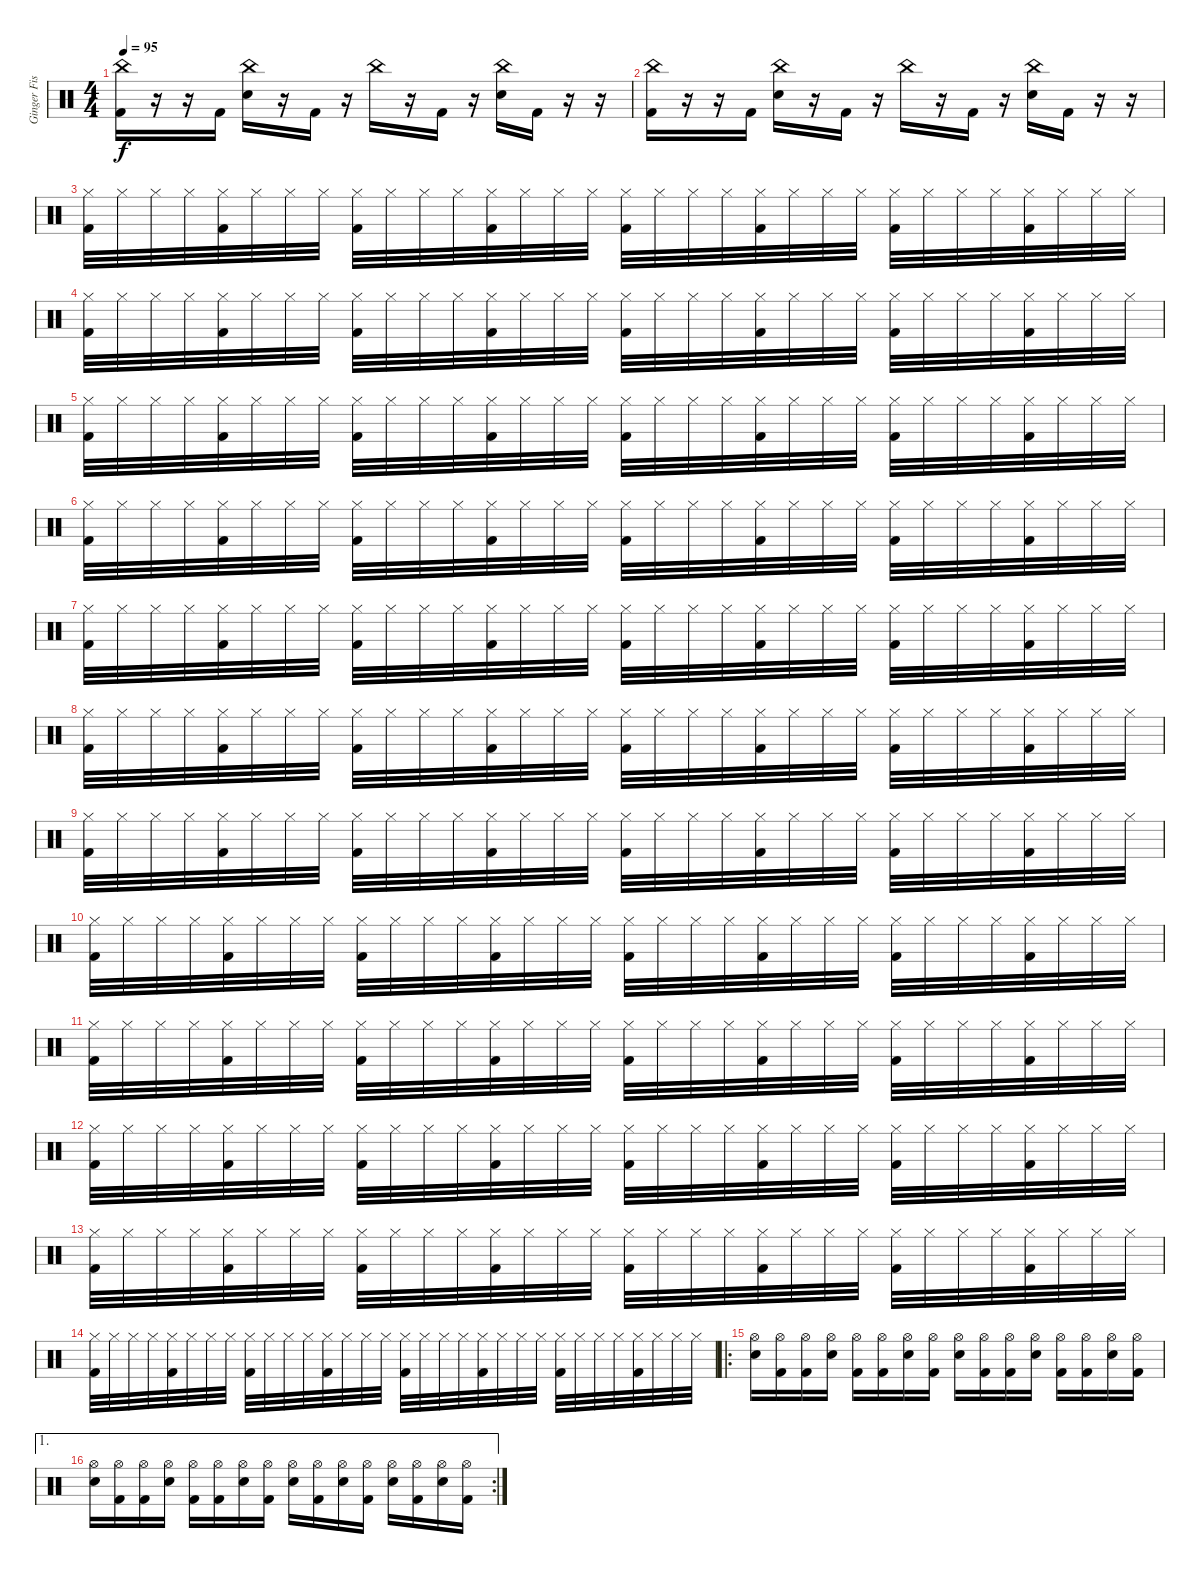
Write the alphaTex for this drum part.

\track ("Ginger Fish" "Ginger Fis") {instrument percussion}
\staff {score}
\articulation defaults
\ts (4 4)
\tempo 95
\clef neutral
\ks c
("China (hit)" "Kick (hit) 2").16{dy f} r.16 r.16 "Kick (hit) 2".16 ("China (hit)" "Electric Snare (hit)").16 r.16 "Kick (hit) 2".16 r.16 "China (hit)".16 r.16 "Kick (hit) 2".16 r.16 ("China (hit)" "Electric Snare (hit)").16 "Kick (hit) 2".16 r.16 r.16 |
("China (hit)" "Kick (hit) 2").16 r.16 r.16 "Kick (hit) 2".16 ("China (hit)" "Electric Snare (hit)").16 r.16 "Kick (hit) 2".16 r.16 "China (hit)".16 r.16 "Kick (hit) 2".16 r.16 ("China (hit)" "Electric Snare (hit)").16 "Kick (hit) 2".16 r.16 r.16 |
("Hi-Hat (closed)" "Kick (hit) 2").32 "Hi-Hat (closed)".32 "Hi-Hat (closed)".32 "Hi-Hat (closed)".32 ("Hi-Hat (closed)" "Kick (hit) 2").32 "Hi-Hat (closed)".32 "Hi-Hat (closed)".32 "Hi-Hat (closed)".32 ("Hi-Hat (closed)" "Kick (hit) 2").32 "Hi-Hat (closed)".32 "Hi-Hat (closed)".32 "Hi-Hat (closed)".32 ("Hi-Hat (closed)" "Kick (hit) 2").32 "Hi-Hat (closed)".32 "Hi-Hat (closed)".32 "Hi-Hat (closed)".32 ("Hi-Hat (closed)" "Kick (hit) 2").32 "Hi-Hat (closed)".32 "Hi-Hat (closed)".32 "Hi-Hat (closed)".32 ("Hi-Hat (closed)" "Kick (hit) 2").32 "Hi-Hat (closed)".32 "Hi-Hat (closed)".32 "Hi-Hat (closed)".32 ("Hi-Hat (closed)" "Kick (hit) 2").32 "Hi-Hat (closed)".32 "Hi-Hat (closed)".32 "Hi-Hat (closed)".32 ("Hi-Hat (closed)" "Kick (hit) 2").32 "Hi-Hat (closed)".32 "Hi-Hat (closed)".32 "Hi-Hat (closed)".32 |
("Hi-Hat (closed)" "Kick (hit) 2").32 "Hi-Hat (closed)".32 "Hi-Hat (closed)".32 "Hi-Hat (closed)".32 ("Hi-Hat (closed)" "Kick (hit) 2").32 "Hi-Hat (closed)".32 "Hi-Hat (closed)".32 "Hi-Hat (closed)".32 ("Hi-Hat (closed)" "Kick (hit) 2").32 "Hi-Hat (closed)".32 "Hi-Hat (closed)".32 "Hi-Hat (closed)".32 ("Hi-Hat (closed)" "Kick (hit) 2").32 "Hi-Hat (closed)".32 "Hi-Hat (closed)".32 "Hi-Hat (closed)".32 ("Hi-Hat (closed)" "Kick (hit) 2").32 "Hi-Hat (closed)".32 "Hi-Hat (closed)".32 "Hi-Hat (closed)".32 ("Hi-Hat (closed)" "Kick (hit) 2").32 "Hi-Hat (closed)".32 "Hi-Hat (closed)".32 "Hi-Hat (closed)".32 ("Hi-Hat (closed)" "Kick (hit) 2").32 "Hi-Hat (closed)".32 "Hi-Hat (closed)".32 "Hi-Hat (closed)".32 ("Hi-Hat (closed)" "Kick (hit) 2").32 "Hi-Hat (closed)".32 "Hi-Hat (closed)".32 "Hi-Hat (closed)".32 |
("Hi-Hat (closed)" "Kick (hit) 2").32 "Hi-Hat (closed)".32 "Hi-Hat (closed)".32 "Hi-Hat (closed)".32 ("Hi-Hat (closed)" "Kick (hit) 2").32 "Hi-Hat (closed)".32 "Hi-Hat (closed)".32 "Hi-Hat (closed)".32 ("Hi-Hat (closed)" "Kick (hit) 2").32 "Hi-Hat (closed)".32 "Hi-Hat (closed)".32 "Hi-Hat (closed)".32 ("Hi-Hat (closed)" "Kick (hit) 2").32 "Hi-Hat (closed)".32 "Hi-Hat (closed)".32 "Hi-Hat (closed)".32 ("Hi-Hat (closed)" "Kick (hit) 2").32 "Hi-Hat (closed)".32 "Hi-Hat (closed)".32 "Hi-Hat (closed)".32 ("Hi-Hat (closed)" "Kick (hit) 2").32 "Hi-Hat (closed)".32 "Hi-Hat (closed)".32 "Hi-Hat (closed)".32 ("Hi-Hat (closed)" "Kick (hit) 2").32 "Hi-Hat (closed)".32 "Hi-Hat (closed)".32 "Hi-Hat (closed)".32 ("Hi-Hat (closed)" "Kick (hit) 2").32 "Hi-Hat (closed)".32 "Hi-Hat (closed)".32 "Hi-Hat (closed)".32 |
("Hi-Hat (closed)" "Kick (hit) 2").32 "Hi-Hat (closed)".32 "Hi-Hat (closed)".32 "Hi-Hat (closed)".32 ("Hi-Hat (closed)" "Kick (hit) 2").32 "Hi-Hat (closed)".32 "Hi-Hat (closed)".32 "Hi-Hat (closed)".32 ("Hi-Hat (closed)" "Kick (hit) 2").32 "Hi-Hat (closed)".32 "Hi-Hat (closed)".32 "Hi-Hat (closed)".32 ("Hi-Hat (closed)" "Kick (hit) 2").32 "Hi-Hat (closed)".32 "Hi-Hat (closed)".32 "Hi-Hat (closed)".32 ("Hi-Hat (closed)" "Kick (hit) 2").32 "Hi-Hat (closed)".32 "Hi-Hat (closed)".32 "Hi-Hat (closed)".32 ("Hi-Hat (closed)" "Kick (hit) 2").32 "Hi-Hat (closed)".32 "Hi-Hat (closed)".32 "Hi-Hat (closed)".32 ("Hi-Hat (closed)" "Kick (hit) 2").32 "Hi-Hat (closed)".32 "Hi-Hat (closed)".32 "Hi-Hat (closed)".32 ("Hi-Hat (closed)" "Kick (hit) 2").32 "Hi-Hat (closed)".32 "Hi-Hat (closed)".32 "Hi-Hat (closed)".32 |
("Hi-Hat (closed)" "Kick (hit) 2").32 "Hi-Hat (closed)".32 "Hi-Hat (closed)".32 "Hi-Hat (closed)".32 ("Hi-Hat (closed)" "Kick (hit) 2").32 "Hi-Hat (closed)".32 "Hi-Hat (closed)".32 "Hi-Hat (closed)".32 ("Hi-Hat (closed)" "Kick (hit) 2").32 "Hi-Hat (closed)".32 "Hi-Hat (closed)".32 "Hi-Hat (closed)".32 ("Hi-Hat (closed)" "Kick (hit) 2").32 "Hi-Hat (closed)".32 "Hi-Hat (closed)".32 "Hi-Hat (closed)".32 ("Hi-Hat (closed)" "Kick (hit) 2").32 "Hi-Hat (closed)".32 "Hi-Hat (closed)".32 "Hi-Hat (closed)".32 ("Hi-Hat (closed)" "Kick (hit) 2").32 "Hi-Hat (closed)".32 "Hi-Hat (closed)".32 "Hi-Hat (closed)".32 ("Hi-Hat (closed)" "Kick (hit) 2").32 "Hi-Hat (closed)".32 "Hi-Hat (closed)".32 "Hi-Hat (closed)".32 ("Hi-Hat (closed)" "Kick (hit) 2").32 "Hi-Hat (closed)".32 "Hi-Hat (closed)".32 "Hi-Hat (closed)".32 |
("Hi-Hat (closed)" "Kick (hit) 2").32 "Hi-Hat (closed)".32 "Hi-Hat (closed)".32 "Hi-Hat (closed)".32 ("Hi-Hat (closed)" "Kick (hit) 2").32 "Hi-Hat (closed)".32 "Hi-Hat (closed)".32 "Hi-Hat (closed)".32 ("Hi-Hat (closed)" "Kick (hit) 2").32 "Hi-Hat (closed)".32 "Hi-Hat (closed)".32 "Hi-Hat (closed)".32 ("Hi-Hat (closed)" "Kick (hit) 2").32 "Hi-Hat (closed)".32 "Hi-Hat (closed)".32 "Hi-Hat (closed)".32 ("Hi-Hat (closed)" "Kick (hit) 2").32 "Hi-Hat (closed)".32 "Hi-Hat (closed)".32 "Hi-Hat (closed)".32 ("Hi-Hat (closed)" "Kick (hit) 2").32 "Hi-Hat (closed)".32 "Hi-Hat (closed)".32 "Hi-Hat (closed)".32 ("Hi-Hat (closed)" "Kick (hit) 2").32 "Hi-Hat (closed)".32 "Hi-Hat (closed)".32 "Hi-Hat (closed)".32 ("Hi-Hat (closed)" "Kick (hit) 2").32 "Hi-Hat (closed)".32 "Hi-Hat (closed)".32 "Hi-Hat (closed)".32 |
("Hi-Hat (closed)" "Kick (hit) 2").32 "Hi-Hat (closed)".32 "Hi-Hat (closed)".32 "Hi-Hat (closed)".32 ("Hi-Hat (closed)" "Kick (hit) 2").32 "Hi-Hat (closed)".32 "Hi-Hat (closed)".32 "Hi-Hat (closed)".32 ("Hi-Hat (closed)" "Kick (hit) 2").32 "Hi-Hat (closed)".32 "Hi-Hat (closed)".32 "Hi-Hat (closed)".32 ("Hi-Hat (closed)" "Kick (hit) 2").32 "Hi-Hat (closed)".32 "Hi-Hat (closed)".32 "Hi-Hat (closed)".32 ("Hi-Hat (closed)" "Kick (hit) 2").32 "Hi-Hat (closed)".32 "Hi-Hat (closed)".32 "Hi-Hat (closed)".32 ("Hi-Hat (closed)" "Kick (hit) 2").32 "Hi-Hat (closed)".32 "Hi-Hat (closed)".32 "Hi-Hat (closed)".32 ("Hi-Hat (closed)" "Kick (hit) 2").32 "Hi-Hat (closed)".32 "Hi-Hat (closed)".32 "Hi-Hat (closed)".32 ("Hi-Hat (closed)" "Kick (hit) 2").32 "Hi-Hat (closed)".32 "Hi-Hat (closed)".32 "Hi-Hat (closed)".32 |
("Hi-Hat (closed)" "Kick (hit) 2").32 "Hi-Hat (closed)".32 "Hi-Hat (closed)".32 "Hi-Hat (closed)".32 ("Hi-Hat (closed)" "Kick (hit) 2").32 "Hi-Hat (closed)".32 "Hi-Hat (closed)".32 "Hi-Hat (closed)".32 ("Hi-Hat (closed)" "Kick (hit) 2").32 "Hi-Hat (closed)".32 "Hi-Hat (closed)".32 "Hi-Hat (closed)".32 ("Hi-Hat (closed)" "Kick (hit) 2").32 "Hi-Hat (closed)".32 "Hi-Hat (closed)".32 "Hi-Hat (closed)".32 ("Hi-Hat (closed)" "Kick (hit) 2").32 "Hi-Hat (closed)".32 "Hi-Hat (closed)".32 "Hi-Hat (closed)".32 ("Hi-Hat (closed)" "Kick (hit) 2").32 "Hi-Hat (closed)".32 "Hi-Hat (closed)".32 "Hi-Hat (closed)".32 ("Hi-Hat (closed)" "Kick (hit) 2").32 "Hi-Hat (closed)".32 "Hi-Hat (closed)".32 "Hi-Hat (closed)".32 ("Hi-Hat (closed)" "Kick (hit) 2").32 "Hi-Hat (closed)".32 "Hi-Hat (closed)".32 "Hi-Hat (closed)".32 |
("Hi-Hat (closed)" "Kick (hit) 2").32 "Hi-Hat (closed)".32 "Hi-Hat (closed)".32 "Hi-Hat (closed)".32 ("Hi-Hat (closed)" "Kick (hit) 2").32 "Hi-Hat (closed)".32 "Hi-Hat (closed)".32 "Hi-Hat (closed)".32 ("Hi-Hat (closed)" "Kick (hit) 2").32 "Hi-Hat (closed)".32 "Hi-Hat (closed)".32 "Hi-Hat (closed)".32 ("Hi-Hat (closed)" "Kick (hit) 2").32 "Hi-Hat (closed)".32 "Hi-Hat (closed)".32 "Hi-Hat (closed)".32 ("Hi-Hat (closed)" "Kick (hit) 2").32 "Hi-Hat (closed)".32 "Hi-Hat (closed)".32 "Hi-Hat (closed)".32 ("Hi-Hat (closed)" "Kick (hit) 2").32 "Hi-Hat (closed)".32 "Hi-Hat (closed)".32 "Hi-Hat (closed)".32 ("Hi-Hat (closed)" "Kick (hit) 2").32 "Hi-Hat (closed)".32 "Hi-Hat (closed)".32 "Hi-Hat (closed)".32 ("Hi-Hat (closed)" "Kick (hit) 2").32 "Hi-Hat (closed)".32 "Hi-Hat (closed)".32 "Hi-Hat (closed)".32 |
("Hi-Hat (closed)" "Kick (hit) 2").32 "Hi-Hat (closed)".32 "Hi-Hat (closed)".32 "Hi-Hat (closed)".32 ("Hi-Hat (closed)" "Kick (hit) 2").32 "Hi-Hat (closed)".32 "Hi-Hat (closed)".32 "Hi-Hat (closed)".32 ("Hi-Hat (closed)" "Kick (hit) 2").32 "Hi-Hat (closed)".32 "Hi-Hat (closed)".32 "Hi-Hat (closed)".32 ("Hi-Hat (closed)" "Kick (hit) 2").32 "Hi-Hat (closed)".32 "Hi-Hat (closed)".32 "Hi-Hat (closed)".32 ("Hi-Hat (closed)" "Kick (hit) 2").32 "Hi-Hat (closed)".32 "Hi-Hat (closed)".32 "Hi-Hat (closed)".32 ("Hi-Hat (closed)" "Kick (hit) 2").32 "Hi-Hat (closed)".32 "Hi-Hat (closed)".32 "Hi-Hat (closed)".32 ("Hi-Hat (closed)" "Kick (hit) 2").32 "Hi-Hat (closed)".32 "Hi-Hat (closed)".32 "Hi-Hat (closed)".32 ("Hi-Hat (closed)" "Kick (hit) 2").32 "Hi-Hat (closed)".32 "Hi-Hat (closed)".32 "Hi-Hat (closed)".32 |
("Hi-Hat (closed)" "Kick (hit) 2").32 "Hi-Hat (closed)".32 "Hi-Hat (closed)".32 "Hi-Hat (closed)".32 ("Hi-Hat (closed)" "Kick (hit) 2").32 "Hi-Hat (closed)".32 "Hi-Hat (closed)".32 "Hi-Hat (closed)".32 ("Hi-Hat (closed)" "Kick (hit) 2").32 "Hi-Hat (closed)".32 "Hi-Hat (closed)".32 "Hi-Hat (closed)".32 ("Hi-Hat (closed)" "Kick (hit) 2").32 "Hi-Hat (closed)".32 "Hi-Hat (closed)".32 "Hi-Hat (closed)".32 ("Hi-Hat (closed)" "Kick (hit) 2").32 "Hi-Hat (closed)".32 "Hi-Hat (closed)".32 "Hi-Hat (closed)".32 ("Hi-Hat (closed)" "Kick (hit) 2").32 "Hi-Hat (closed)".32 "Hi-Hat (closed)".32 "Hi-Hat (closed)".32 ("Hi-Hat (closed)" "Kick (hit) 2").32 "Hi-Hat (closed)".32 "Hi-Hat (closed)".32 "Hi-Hat (closed)".32 ("Hi-Hat (closed)" "Kick (hit) 2").32 "Hi-Hat (closed)".32 "Hi-Hat (closed)".32 "Hi-Hat (closed)".32 |
("Hi-Hat (closed)" "Kick (hit) 2").32 "Hi-Hat (closed)".32 "Hi-Hat (closed)".32 "Hi-Hat (closed)".32 ("Hi-Hat (closed)" "Kick (hit) 2").32 "Hi-Hat (closed)".32 "Hi-Hat (closed)".32 "Hi-Hat (closed)".32 ("Hi-Hat (closed)" "Kick (hit) 2").32 "Hi-Hat (closed)".32 "Hi-Hat (closed)".32 "Hi-Hat (closed)".32 ("Hi-Hat (closed)" "Kick (hit) 2").32 "Hi-Hat (closed)".32 "Hi-Hat (closed)".32 "Hi-Hat (closed)".32 ("Hi-Hat (closed)" "Kick (hit) 2").32 "Hi-Hat (closed)".32 "Hi-Hat (closed)".32 "Hi-Hat (closed)".32 ("Hi-Hat (closed)" "Kick (hit) 2").32 "Hi-Hat (closed)".32 "Hi-Hat (closed)".32 "Hi-Hat (closed)".32 ("Hi-Hat (closed)" "Kick (hit) 2").32 "Hi-Hat (closed)".32 "Hi-Hat (closed)".32 "Hi-Hat (closed)".32 ("Hi-Hat (closed)" "Kick (hit) 2").32 "Hi-Hat (closed)".32 "Hi-Hat (closed)".32 "Hi-Hat (closed)".32 |
\ro
("Hi-Hat (open)" "Electric Snare (hit)").16 ("Hi-Hat (open)" "Kick (hit) 2").16 ("Hi-Hat (open)" "Kick (hit) 2").16 ("Hi-Hat (open)" "Electric Snare (hit)").16 ("Hi-Hat (open)" "Kick (hit) 2").16 ("Hi-Hat (open)" "Kick (hit) 2").16 ("Hi-Hat (open)" "Electric Snare (hit)").16 ("Hi-Hat (open)" "Kick (hit) 2").16 ("Hi-Hat (open)" "Electric Snare (hit)").16 ("Hi-Hat (open)" "Kick (hit) 2").16 ("Hi-Hat (open)" "Kick (hit) 2").16 ("Hi-Hat (open)" "Electric Snare (hit)").16 ("Hi-Hat (open)" "Kick (hit) 2").16 ("Hi-Hat (open)" "Kick (hit) 2").16 ("Hi-Hat (open)" "Electric Snare (hit)").16 ("Hi-Hat (open)" "Kick (hit) 2").16 |
\ae 1
\rc 2
("Hi-Hat (open)" "Electric Snare (hit)").16 ("Hi-Hat (open)" "Kick (hit) 2").16 ("Hi-Hat (open)" "Kick (hit) 2").16 ("Hi-Hat (open)" "Electric Snare (hit)").16 ("Hi-Hat (open)" "Kick (hit) 2").16 ("Hi-Hat (open)" "Kick (hit) 2").16 ("Hi-Hat (open)" "Electric Snare (hit)").16 ("Hi-Hat (open)" "Kick (hit) 2").16 ("Hi-Hat (open)" "Electric Snare (hit)").16 ("Hi-Hat (open)" "Kick (hit) 2").16 ("Hi-Hat (open)" "Electric Snare (hit)").16 ("Hi-Hat (open)" "Kick (hit) 2").16 ("Hi-Hat (open)" "Electric Snare (hit)").16 ("Hi-Hat (open)" "Kick (hit) 2").16 ("Hi-Hat (open)" "Electric Snare (hit)").16 ("Hi-Hat (open)" "Kick (hit) 2").16
